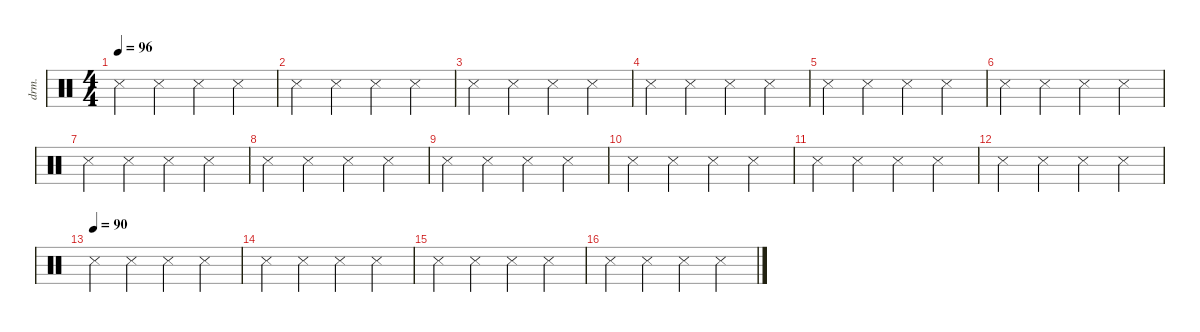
\defaultSystemsLayout 4
\hideDynamics
\bracketExtendMode nobrackets
\otherSystemsTrackNameOrientation horizontal
\track ("Drumkit" "drm.") {instrument percussion}
\staff {score}
\articulation defaults
\ts (4 4)
\tempo 96
\clef neutral
\ks c "Metronome (hit)".4{dy mf beam Down} "Metronome (hit)".4{beam Down} "Metronome (hit)".4{beam Down} "Metronome (hit)".4{beam Down}
|
"Metronome (hit)".4{beam Down} "Metronome (hit)".4{beam Down} "Metronome (hit)".4{beam Down} "Metronome (hit)".4{beam Down} |
"Metronome (hit)".4{beam Down} "Metronome (hit)".4{beam Down} "Metronome (hit)".4{beam Down} "Metronome (hit)".4{beam Down} |
"Metronome (hit)".4{beam Down} "Metronome (hit)".4{beam Down} "Metronome (hit)".4{beam Down} "Metronome (hit)".4{beam Down} |
"Metronome (hit)".4{beam Down} "Metronome (hit)".4{beam Down} "Metronome (hit)".4{beam Down} "Metronome (hit)".4{beam Down} |
"Metronome (hit)".4{beam Down} "Metronome (hit)".4{beam Down} "Metronome (hit)".4{beam Down} "Metronome (hit)".4{beam Down} |
"Metronome (hit)".4{beam Down} "Metronome (hit)".4{beam Down} "Metronome (hit)".4{beam Down} "Metronome (hit)".4{beam Down} |
"Metronome (hit)".4{beam Down} "Metronome (hit)".4{beam Down} "Metronome (hit)".4{beam Down} "Metronome (hit)".4{beam Down} |
"Metronome (hit)".4{beam Down} "Metronome (hit)".4{beam Down} "Metronome (hit)".4{beam Down} "Metronome (hit)".4{beam Down} |
"Metronome (hit)".4{beam Down} "Metronome (hit)".4{beam Down} "Metronome (hit)".4{beam Down} "Metronome (hit)".4{beam Down} |
"Metronome (hit)".4{beam Down} "Metronome (hit)".4{beam Down} "Metronome (hit)".4{beam Down} "Metronome (hit)".4{beam Down} |
"Metronome (hit)".4{beam Down} "Metronome (hit)".4{beam Down} "Metronome (hit)".4{beam Down} "Metronome (hit)".4{beam Down} |
\tempo (90)
"Metronome (hit)".4{beam Down} "Metronome (hit)".4{beam Down} "Metronome (hit)".4{beam Down} "Metronome (hit)".4{beam Down} |
"Metronome (hit)".4{beam Down} "Metronome (hit)".4{beam Down} "Metronome (hit)".4{beam Down} "Metronome (hit)".4{beam Down} |
"Metronome (hit)".4{beam Down} "Metronome (hit)".4{beam Down} "Metronome (hit)".4{beam Down} "Metronome (hit)".4{beam Down} |
"Metronome (hit)".4{beam Down} "Metronome (hit)".4{beam Down} "Metronome (hit)".4{beam Down} "Metronome (hit)".4{beam Down}
